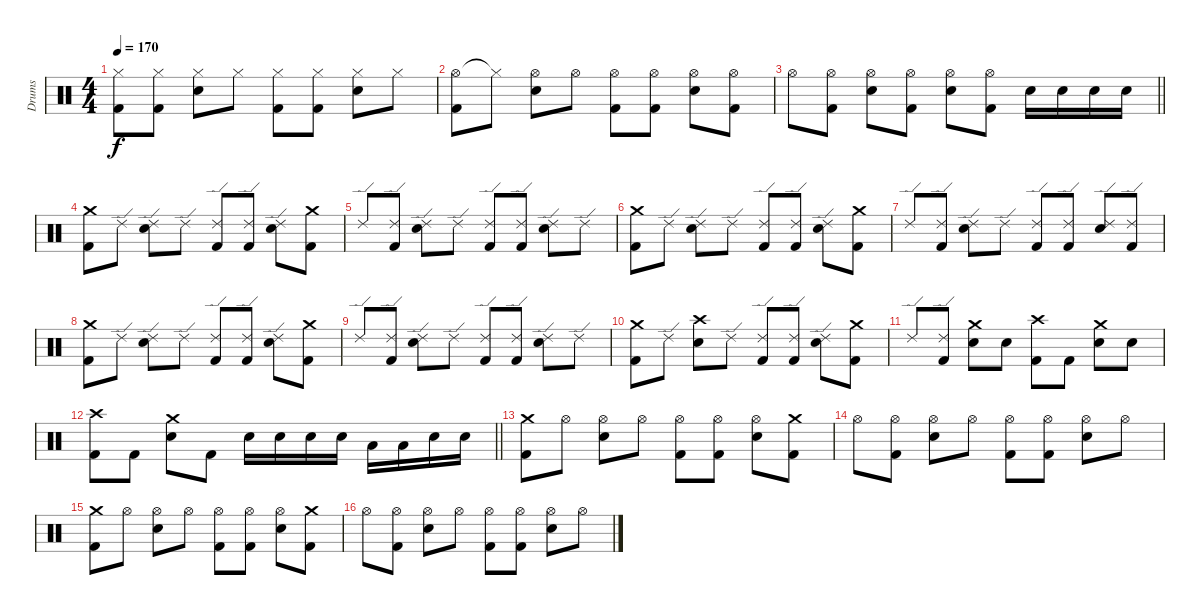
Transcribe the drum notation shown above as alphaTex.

\track ("Drums" "Drums") {instrument percussion}
\staff {score}
\articulation defaults
\ts (4 4)
\tempo 170
\clef neutral
\ks c
("Hi-Hat (closed)" "Kick (hit) 2").8{dy f} ("Hi-Hat (closed)" "Kick (hit) 2").8 ("Hi-Hat (closed)" "Electric Snare (hit)").8 "Hi-Hat (closed)".8 ("Hi-Hat (closed)" "Kick (hit) 2").8 ("Hi-Hat (closed)" "Kick (hit) 2").8 ("Hi-Hat (closed)" "Electric Snare (hit)").8 "Hi-Hat (closed)".8 |
("Hi-Hat (open)" "Kick (hit) 2").8 "Hi-Hat (closed)"{t}.8 ("Hi-Hat (open)" "Electric Snare (hit)").8 "Hi-Hat (open)".8 ("Hi-Hat (open)" "Kick (hit) 2").8 ("Hi-Hat (open)" "Kick (hit) 2").8 ("Hi-Hat (open)" "Electric Snare (hit)").8 ("Hi-Hat (open)" "Kick (hit) 2").8 |
\barLineRight lightlight "Hi-Hat (open)".8
("Hi-Hat (open)" "Kick (hit) 2").8 ("Hi-Hat (open)" "Electric Snare (hit)").8 ("Hi-Hat (open)" "Kick (hit) 2").8 ("Hi-Hat (open)" "Electric Snare (hit)").8 ("Hi-Hat (open)" "Kick (hit) 2").8 "Electric Snare (hit)".16 "Electric Snare (hit)".16 "Electric Snare (hit)".16 "Electric Snare (hit)".16 |
("Crash medium (hit)" "Kick (hit) 2").8 "Ride (edge) 2".8 ("Ride (edge) 2" "Electric Snare (hit)").8 "Ride (edge) 2".8 ("Ride (edge) 2" "Kick (hit) 2").8 ("Ride (edge) 2" "Kick (hit) 2").8 ("Ride (edge) 2" "Electric Snare (hit)").8 ("Crash medium (hit)" "Kick (hit) 2").8 |
"Ride (edge) 2".8 ("Ride (edge) 2" "Kick (hit) 2").8 ("Ride (edge) 2" "Electric Snare (hit)").8 "Ride (edge) 2".8 ("Ride (edge) 2" "Kick (hit) 2").8 ("Ride (edge) 2" "Kick (hit) 2").8 ("Ride (edge) 2" "Electric Snare (hit)").8 "Ride (edge) 2".8 |
("Crash medium (hit)" "Kick (hit) 2").8 "Ride (edge) 2".8 ("Ride (edge) 2" "Electric Snare (hit)").8 "Ride (edge) 2".8 ("Ride (edge) 2" "Kick (hit) 2").8 ("Ride (edge) 2" "Kick (hit) 2").8 ("Ride (edge) 2" "Electric Snare (hit)").8 ("Crash medium (hit)" "Kick (hit) 2").8 |
"Ride (edge) 2".8 ("Ride (edge) 2" "Kick (hit) 2").8 ("Ride (edge) 2" "Electric Snare (hit)").8 "Ride (edge) 2".8 ("Ride (edge) 2" "Kick (hit) 2").8 ("Ride (edge) 2" "Kick (hit) 2").8 ("Ride (edge) 2" "Electric Snare (hit)").8 ("Ride (edge) 2" "Kick (hit) 2").8 |
("Crash medium (hit)" "Kick (hit) 2").8 "Ride (edge) 2".8 ("Ride (edge) 2" "Electric Snare (hit)").8 "Ride (edge) 2".8 ("Ride (edge) 2" "Kick (hit) 2").8 ("Ride (edge) 2" "Kick (hit) 2").8 ("Ride (edge) 2" "Electric Snare (hit)").8 ("Crash medium (hit)" "Kick (hit) 2").8 |
"Ride (edge) 2".8 ("Ride (edge) 2" "Kick (hit) 2").8 ("Ride (edge) 2" "Electric Snare (hit)").8 "Ride (edge) 2".8 ("Ride (edge) 2" "Kick (hit) 2").8 ("Ride (edge) 2" "Kick (hit) 2").8 ("Ride (edge) 2" "Electric Snare (hit)").8 "Ride (edge) 2".8 |
("Crash medium (hit)" "Kick (hit) 2").8 "Ride (edge) 2".8 ("Crash high (hit)" "Electric Snare (hit)").8 "Ride (edge) 2".8 ("Ride (edge) 2" "Kick (hit) 2").8 ("Ride (edge) 2" "Kick (hit) 2").8 ("Ride (edge) 2" "Electric Snare (hit)").8 ("Crash medium (hit)" "Kick (hit) 2").8 |
"Ride (edge) 2".8 ("Ride (edge) 2" "Kick (hit) 2").8 ("Crash medium (hit)" "Electric Snare (hit)").8 "Electric Snare (hit)".8 ("Crash high (hit)" "Kick (hit) 2").8 "Kick (hit) 2".8 ("Crash medium (hit)" "Electric Snare (hit)").8 "Electric Snare (hit)".8 |
\barLineRight lightlight
("Crash high (hit)" "Kick (hit) 2").8 "Kick (hit) 2".8 ("Crash medium (hit)" "Electric Snare (hit)").8 "Kick (hit) 2".8 "Electric Snare (hit)".16 "Electric Snare (hit)".16 "Electric Snare (hit)".16 "Electric Snare (hit)".16 "Low Tom (hit)".16 "Low Tom (hit)".16 "Electric Snare (hit)".16 "Electric Snare (hit)".16 |
("Crash medium (hit)" "Kick (hit) 2").8 "Hi-Hat (open)".8 ("Hi-Hat (open)" "Electric Snare (hit)").8 "Hi-Hat (open)".8 ("Hi-Hat (open)" "Kick (hit) 2").8 ("Hi-Hat (open)" "Kick (hit) 2").8 ("Hi-Hat (open)" "Electric Snare (hit)").8 ("Crash medium (hit)" "Kick (hit) 2").8 |
"Hi-Hat (open)".8 ("Hi-Hat (open)" "Kick (hit) 2").8 ("Hi-Hat (open)" "Electric Snare (hit)").8 "Hi-Hat (open)".8 ("Hi-Hat (open)" "Kick (hit) 2").8 ("Hi-Hat (open)" "Kick (hit) 2").8 ("Hi-Hat (open)" "Electric Snare (hit)").8 "Hi-Hat (open)".8 |
("Crash medium (hit)" "Kick (hit) 2").8 "Hi-Hat (open)".8 ("Hi-Hat (open)" "Electric Snare (hit)").8 "Hi-Hat (open)".8 ("Hi-Hat (open)" "Kick (hit) 2").8 ("Hi-Hat (open)" "Kick (hit) 2").8 ("Hi-Hat (open)" "Electric Snare (hit)").8 ("Crash medium (hit)" "Kick (hit) 2").8 |
"Hi-Hat (open)".8 ("Hi-Hat (open)" "Kick (hit) 2").8 ("Hi-Hat (open)" "Electric Snare (hit)").8 "Hi-Hat (open)".8 ("Hi-Hat (open)" "Kick (hit) 2").8 ("Hi-Hat (open)" "Kick (hit) 2").8 ("Hi-Hat (open)" "Electric Snare (hit)").8 "Hi-Hat (open)".8
